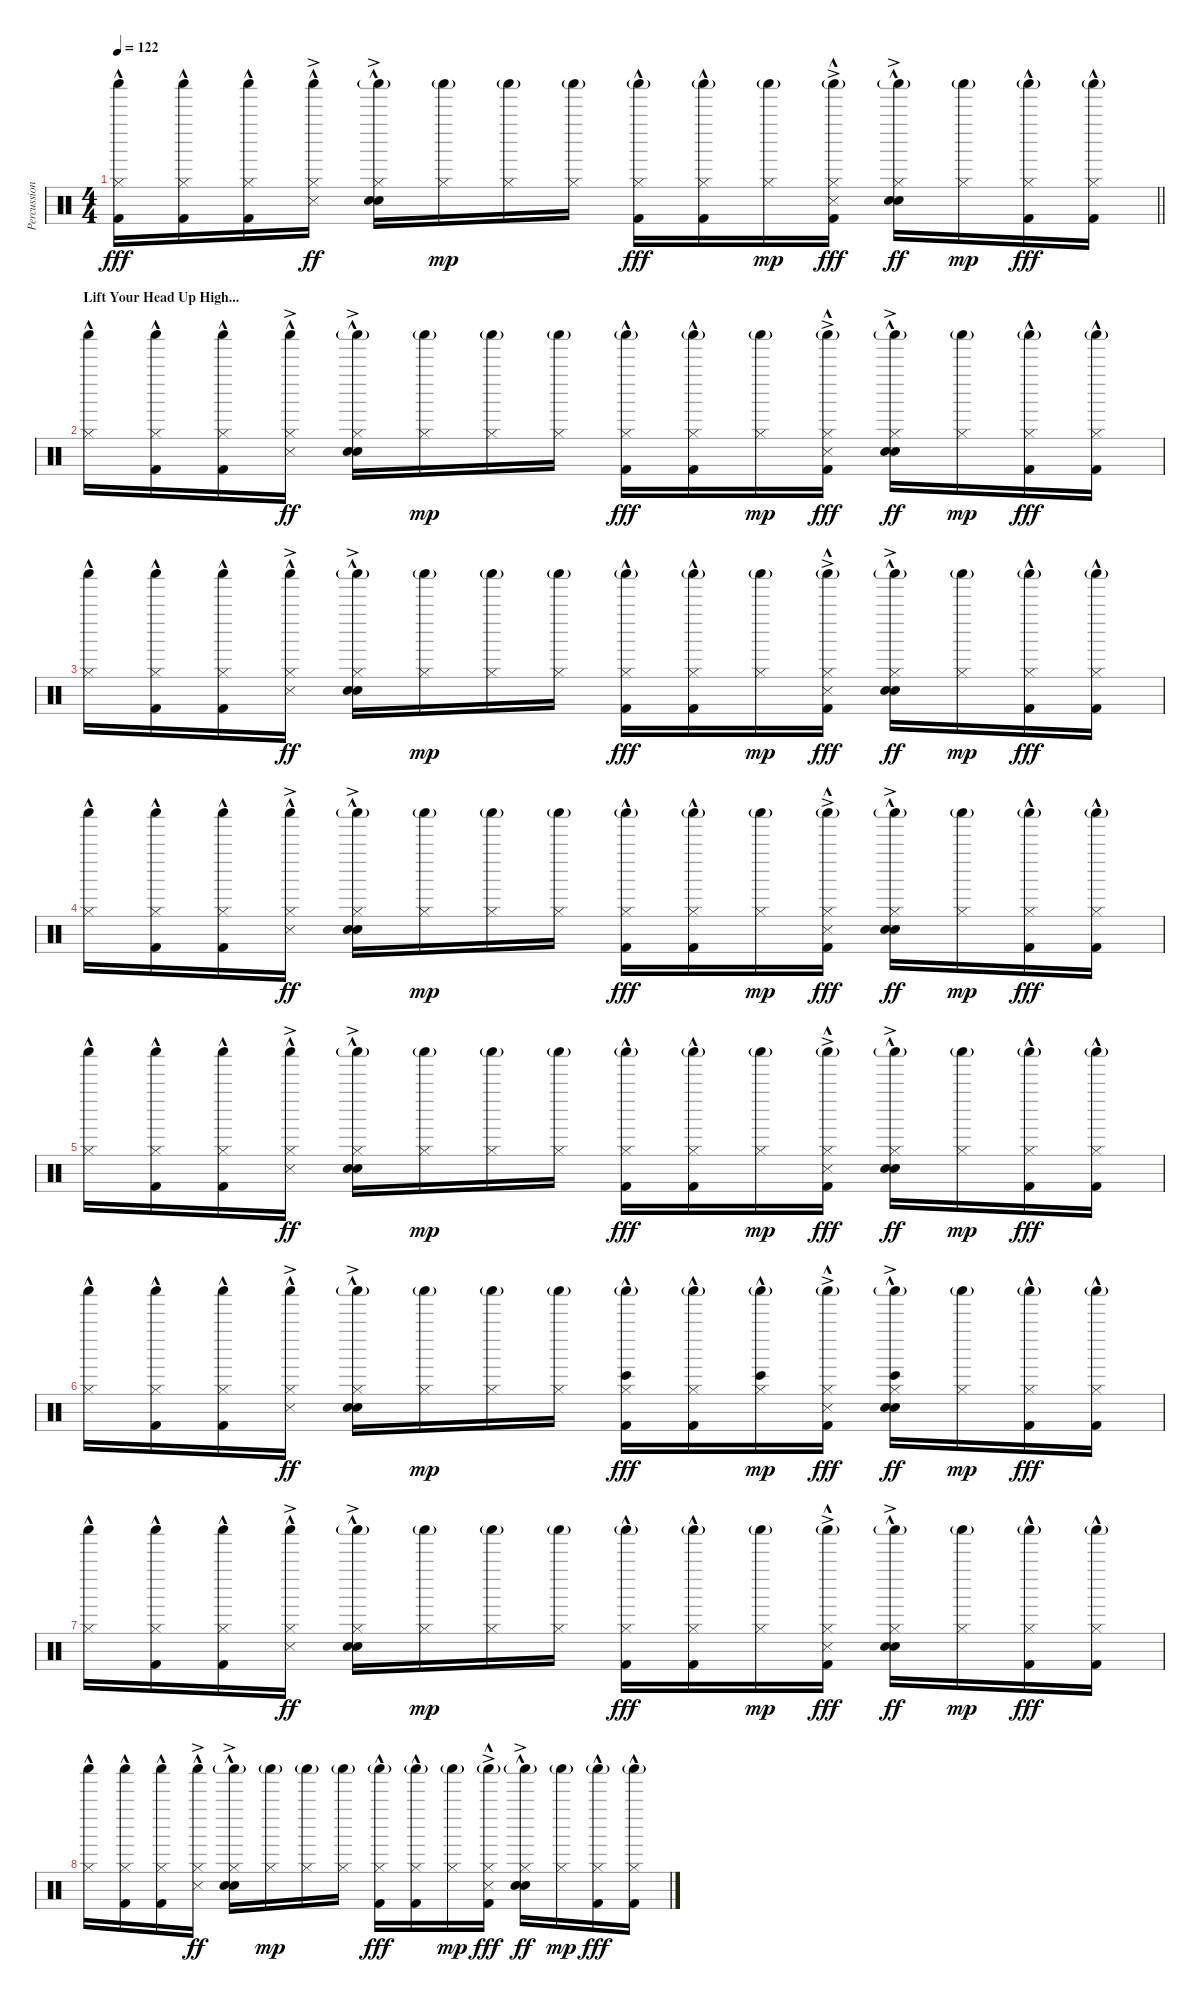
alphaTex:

\track ("Percussion" "Percussion") {instrument percussion}
\staff {score}
\articulation defaults
\ts (4 4)
\tempo 122
\clef neutral
\barLineRight lightlight
\ks c
("Shaker (hit)" "Hi-Hat (closed)"{hac} "Kick (hit) 2").16{dy fff} ("Shaker (hit)" "Hi-Hat (closed)"{hac} "Kick (hit) 2"{hac}).16 ("Shaker (hit)" "Hi-Hat (closed)"{hac} "Kick (hit) 2"{hac}).16 ("Shaker (hit)" "Hi-Hat (closed)"{hac} "Snare (side stick) 3"{ac}).16{dy ff} ("Shaker (hit)"{g} "Hi-Hat (closed)" "Hand Clap (hit)"{hac} "Snare (hit) 2"{ac}).16 ("Shaker (hit)"{g} "Hi-Hat (closed)").16{dy mp} ("Shaker (hit)"{g} "Hi-Hat (closed)").16 ("Shaker (hit)"{g} "Hi-Hat (closed)").16 ("Shaker (hit)"{g} "Hi-Hat (closed)" "Kick (hit) 2"{hac}).16{dy fff} ("Shaker (hit)"{g} "Hi-Hat (closed)" "Kick (hit) 2"{hac}).16 ("Shaker (hit)"{g} "Hi-Hat (closed)").16{dy mp} ("Shaker (hit)"{g} "Hi-Hat (closed)" "Snare (side stick) 3"{ac} "Kick (hit) 2"{hac}).16{dy fff} ("Shaker (hit)"{g} "Hi-Hat (closed)" "Hand Clap (hit)"{hac} "Snare (hit) 2"{ac}).16{dy ff} ("Shaker (hit)"{g} "Hi-Hat (closed)").16{dy mp} ("Shaker (hit)"{g} "Hi-Hat (closed)" "Kick (hit) 2"{hac}).16{dy fff} ("Shaker (hit)"{g} "Hi-Hat (closed)" "Kick (hit) 2"{hac}).16 |
\section ("" "Lift Your Head Up High...")
("Shaker (hit)" "Hi-Hat (closed)"{hac}).16 ("Shaker (hit)" "Hi-Hat (closed)"{hac} "Kick (hit) 2"{hac}).16 ("Shaker (hit)" "Hi-Hat (closed)"{hac} "Kick (hit) 2"{hac}).16 ("Shaker (hit)" "Hi-Hat (closed)"{hac} "Snare (side stick) 3"{ac}).16{dy ff} ("Shaker (hit)"{g} "Hi-Hat (closed)" "Hand Clap (hit)"{hac} "Snare (hit) 2"{ac}).16 ("Shaker (hit)"{g} "Hi-Hat (closed)").16{dy mp} ("Shaker (hit)"{g} "Hi-Hat (closed)").16 ("Shaker (hit)"{g} "Hi-Hat (closed)").16 ("Shaker (hit)"{g} "Hi-Hat (closed)" "Kick (hit) 2"{hac}).16{dy fff} ("Shaker (hit)"{g} "Hi-Hat (closed)" "Kick (hit) 2"{hac}).16 ("Shaker (hit)"{g} "Hi-Hat (closed)").16{dy mp} ("Shaker (hit)"{g} "Hi-Hat (closed)" "Snare (side stick) 3"{ac} "Kick (hit) 2"{hac}).16{dy fff} ("Shaker (hit)"{g} "Hi-Hat (closed)" "Hand Clap (hit)"{hac} "Snare (hit) 2"{ac}).16{dy ff} ("Shaker (hit)"{g} "Hi-Hat (closed)").16{dy mp} ("Shaker (hit)"{g} "Hi-Hat (closed)" "Kick (hit) 2"{hac}).16{dy fff} ("Shaker (hit)"{g} "Hi-Hat (closed)" "Kick (hit) 2"{hac}).16 |
("Shaker (hit)" "Hi-Hat (closed)"{hac}).16 ("Shaker (hit)" "Hi-Hat (closed)"{hac} "Kick (hit) 2"{hac}).16 ("Shaker (hit)" "Hi-Hat (closed)"{hac} "Kick (hit) 2"{hac}).16 ("Shaker (hit)" "Hi-Hat (closed)"{hac} "Snare (side stick) 3"{ac}).16{dy ff} ("Shaker (hit)"{g} "Hi-Hat (closed)" "Hand Clap (hit)"{hac} "Snare (hit) 2"{ac}).16 ("Shaker (hit)"{g} "Hi-Hat (closed)").16{dy mp} ("Shaker (hit)"{g} "Hi-Hat (closed)").16 ("Shaker (hit)"{g} "Hi-Hat (closed)").16 ("Shaker (hit)"{g} "Hi-Hat (closed)" "Kick (hit) 2"{hac}).16{dy fff} ("Shaker (hit)"{g} "Hi-Hat (closed)" "Kick (hit) 2"{hac}).16 ("Shaker (hit)"{g} "Hi-Hat (closed)").16{dy mp} ("Shaker (hit)"{g} "Hi-Hat (closed)" "Snare (side stick) 3"{ac} "Kick (hit) 2"{hac}).16{dy fff} ("Shaker (hit)"{g} "Hi-Hat (closed)" "Hand Clap (hit)"{hac} "Snare (hit) 2"{ac}).16{dy ff} ("Shaker (hit)"{g} "Hi-Hat (closed)").16{dy mp} ("Shaker (hit)"{g} "Hi-Hat (closed)" "Kick (hit) 2"{hac}).16{dy fff} ("Shaker (hit)"{g} "Hi-Hat (closed)" "Kick (hit) 2"{hac}).16 |
("Shaker (hit)" "Hi-Hat (closed)"{hac}).16 ("Shaker (hit)" "Hi-Hat (closed)"{hac} "Kick (hit) 2"{hac}).16 ("Shaker (hit)" "Hi-Hat (closed)"{hac} "Kick (hit) 2"{hac}).16 ("Shaker (hit)" "Hi-Hat (closed)"{hac} "Snare (side stick) 3"{ac}).16{dy ff} ("Shaker (hit)"{g} "Hi-Hat (closed)" "Hand Clap (hit)"{hac} "Snare (hit) 2"{ac}).16 ("Shaker (hit)"{g} "Hi-Hat (closed)").16{dy mp} ("Shaker (hit)"{g} "Hi-Hat (closed)").16 ("Shaker (hit)"{g} "Hi-Hat (closed)").16 ("Shaker (hit)"{g} "Hi-Hat (closed)" "Kick (hit) 2"{hac}).16{dy fff} ("Shaker (hit)"{g} "Hi-Hat (closed)" "Kick (hit) 2"{hac}).16 ("Shaker (hit)"{g} "Hi-Hat (closed)").16{dy mp} ("Shaker (hit)"{g} "Hi-Hat (closed)" "Snare (side stick) 3"{ac} "Kick (hit) 2"{hac}).16{dy fff} ("Shaker (hit)"{g} "Hi-Hat (closed)" "Hand Clap (hit)"{hac} "Snare (hit) 2"{ac}).16{dy ff} ("Shaker (hit)"{g} "Hi-Hat (closed)").16{dy mp} ("Shaker (hit)"{g} "Hi-Hat (closed)" "Kick (hit) 2"{hac}).16{dy fff} ("Shaker (hit)"{g} "Hi-Hat (closed)" "Kick (hit) 2"{hac}).16 |
("Shaker (hit)" "Hi-Hat (closed)"{hac}).16 ("Shaker (hit)" "Hi-Hat (closed)"{hac} "Kick (hit) 2"{hac}).16 ("Shaker (hit)" "Hi-Hat (closed)"{hac} "Kick (hit) 2"{hac}).16 ("Shaker (hit)" "Hi-Hat (closed)"{hac} "Snare (side stick) 3"{ac}).16{dy ff} ("Shaker (hit)"{g} "Hi-Hat (closed)" "Hand Clap (hit)"{hac} "Snare (hit) 2"{ac}).16 ("Shaker (hit)"{g} "Hi-Hat (closed)").16{dy mp} ("Shaker (hit)"{g} "Hi-Hat (closed)").16 ("Shaker (hit)"{g} "Hi-Hat (closed)").16 ("Shaker (hit)"{g} "Hi-Hat (closed)" "Kick (hit) 2"{hac}).16{dy fff} ("Shaker (hit)"{g} "Hi-Hat (closed)" "Kick (hit) 2"{hac}).16 ("Shaker (hit)"{g} "Hi-Hat (closed)").16{dy mp} ("Shaker (hit)"{g} "Hi-Hat (closed)" "Snare (side stick) 3"{ac} "Kick (hit) 2"{hac}).16{dy fff} ("Shaker (hit)"{g} "Hi-Hat (closed)" "Hand Clap (hit)"{hac} "Snare (hit) 2"{ac}).16{dy ff} ("Shaker (hit)"{g} "Hi-Hat (closed)").16{dy mp} ("Shaker (hit)"{g} "Hi-Hat (closed)" "Kick (hit) 2"{hac}).16{dy fff} ("Shaker (hit)"{g} "Hi-Hat (closed)" "Kick (hit) 2"{hac}).16 |
("Shaker (hit)" "Hi-Hat (closed)"{hac}).16 ("Shaker (hit)" "Hi-Hat (closed)"{hac} "Kick (hit) 2"{hac}).16 ("Shaker (hit)" "Hi-Hat (closed)"{hac} "Kick (hit) 2"{hac}).16 ("Shaker (hit)" "Hi-Hat (closed)"{hac} "Snare (side stick) 3"{ac}).16{dy ff} ("Shaker (hit)"{g} "Hi-Hat (closed)" "Hand Clap (hit)"{hac} "Snare (hit) 2"{ac}).16 ("Shaker (hit)"{g} "Hi-Hat (closed)").16{dy mp} ("Shaker (hit)"{g} "Hi-Hat (closed)").16 ("Shaker (hit)"{g} "Hi-Hat (closed)").16 ("Bongo High (hit)"{hac} "Shaker (hit)"{g} "Hi-Hat (closed)" "Kick (hit) 2"{hac}).16{dy fff} ("Shaker (hit)"{g} "Hi-Hat (closed)" "Kick (hit) 2"{hac}).16 ("Bongo High (hit)"{hac} "Shaker (hit)"{g} "Hi-Hat (closed)").16{dy mp} ("Shaker (hit)"{g} "Hi-Hat (closed)" "Snare (side stick) 3"{ac} "Kick (hit) 2"{hac}).16{dy fff} ("Bongo High (hit)"{hac} "Shaker (hit)"{g} "Hi-Hat (closed)" "Hand Clap (hit)"{hac} "Snare (hit) 2"{ac}).16{dy ff} ("Shaker (hit)"{g} "Hi-Hat (closed)").16{dy mp} ("Shaker (hit)"{g} "Hi-Hat (closed)" "Kick (hit) 2"{hac}).16{dy fff} ("Shaker (hit)"{g} "Hi-Hat (closed)" "Kick (hit) 2"{hac}).16 |
("Shaker (hit)" "Hi-Hat (closed)"{hac}).16 ("Shaker (hit)" "Hi-Hat (closed)"{hac} "Kick (hit) 2"{hac}).16 ("Shaker (hit)" "Hi-Hat (closed)"{hac} "Kick (hit) 2"{hac}).16 ("Shaker (hit)" "Hi-Hat (closed)"{hac} "Snare (side stick) 3"{ac}).16{dy ff} ("Shaker (hit)"{g} "Hi-Hat (closed)" "Hand Clap (hit)"{hac} "Snare (hit) 2"{ac}).16 ("Shaker (hit)"{g} "Hi-Hat (closed)").16{dy mp} ("Shaker (hit)"{g} "Hi-Hat (closed)").16 ("Shaker (hit)"{g} "Hi-Hat (closed)").16 ("Shaker (hit)"{g} "Hi-Hat (closed)" "Kick (hit) 2"{hac}).16{dy fff} ("Shaker (hit)"{g} "Hi-Hat (closed)" "Kick (hit) 2"{hac}).16 ("Shaker (hit)"{g} "Hi-Hat (closed)").16{dy mp} ("Shaker (hit)"{g} "Hi-Hat (closed)" "Snare (side stick) 3"{ac} "Kick (hit) 2"{hac}).16{dy fff} ("Shaker (hit)"{g} "Hi-Hat (closed)" "Hand Clap (hit)"{hac} "Snare (hit) 2"{ac}).16{dy ff} ("Shaker (hit)"{g} "Hi-Hat (closed)").16{dy mp} ("Shaker (hit)"{g} "Hi-Hat (closed)" "Kick (hit) 2"{hac}).16{dy fff} ("Shaker (hit)"{g} "Hi-Hat (closed)" "Kick (hit) 2"{hac}).16 |
("Shaker (hit)" "Hi-Hat (closed)"{hac}).16 ("Shaker (hit)" "Hi-Hat (closed)"{hac} "Kick (hit) 2"{hac}).16 ("Shaker (hit)" "Hi-Hat (closed)"{hac} "Kick (hit) 2"{hac}).16 ("Shaker (hit)" "Hi-Hat (closed)"{hac} "Snare (side stick) 3"{ac}).16{dy ff} ("Shaker (hit)"{g} "Hi-Hat (closed)" "Hand Clap (hit)"{hac} "Snare (hit) 2"{ac}).16 ("Shaker (hit)"{g} "Hi-Hat (closed)").16{dy mp} ("Shaker (hit)"{g} "Hi-Hat (closed)").16 ("Shaker (hit)"{g} "Hi-Hat (closed)").16 ("Shaker (hit)"{g} "Hi-Hat (closed)" "Kick (hit) 2"{hac}).16{dy fff} ("Shaker (hit)"{g} "Hi-Hat (closed)" "Kick (hit) 2"{hac}).16 ("Shaker (hit)"{g} "Hi-Hat (closed)").16{dy mp} ("Shaker (hit)"{g} "Hi-Hat (closed)" "Snare (side stick) 3"{ac} "Kick (hit) 2"{hac}).16{dy fff} ("Shaker (hit)"{g} "Hi-Hat (closed)" "Hand Clap (hit)"{hac} "Snare (hit) 2"{ac}).16{dy ff} ("Shaker (hit)"{g} "Hi-Hat (closed)").16{dy mp} ("Shaker (hit)"{g} "Hi-Hat (closed)" "Kick (hit) 2"{hac}).16{dy fff} ("Shaker (hit)"{g} "Hi-Hat (closed)" "Kick (hit) 2"{hac}).16
